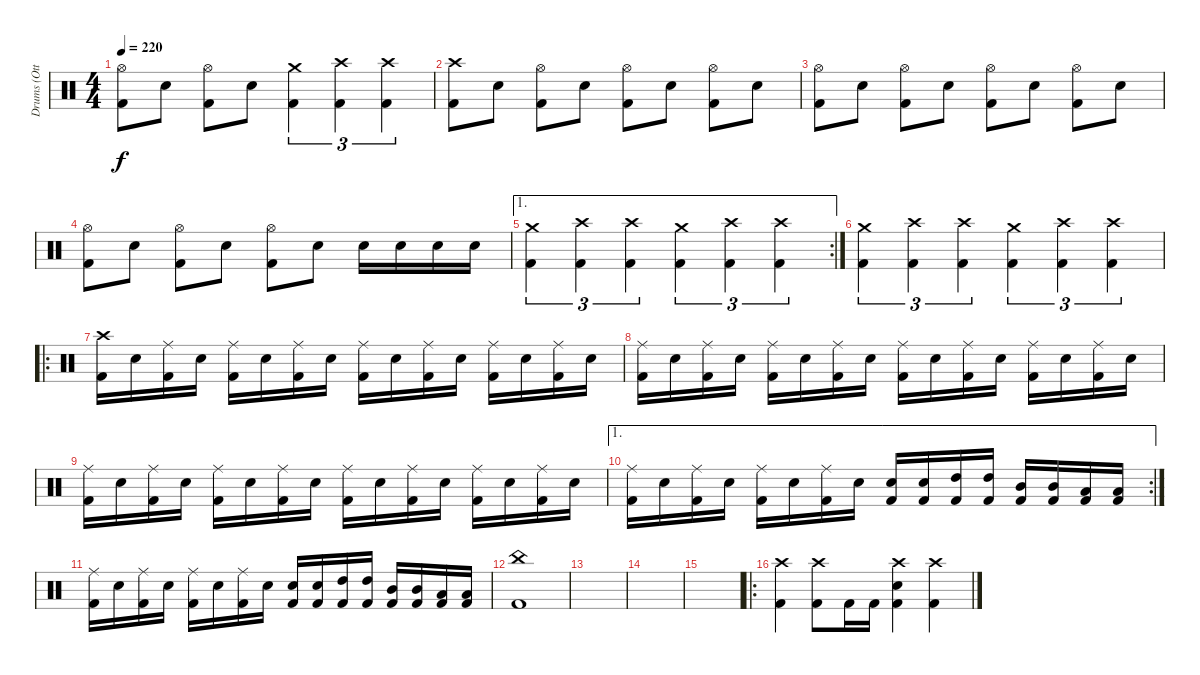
\track ("Drums (Otto)" "Drums (Ott") {instrument percussion}
\staff {score}
\articulation defaults
\ts (4 4)
\tempo 220
\clef neutral
\ks c
("Hi-Hat (open)" "Kick (hit) 2").8{dy f} "Electric Snare (hit)".8 ("Hi-Hat (open)" "Kick (hit) 2").8 "Electric Snare (hit)".8 ("Crash medium (hit)" "Kick (hit) 2").4{tu (3 2)} ("Crash high (hit)" "Kick (hit) 2").4{tu (3 2)} ("Crash high (hit)" "Kick (hit) 2").4{tu (3 2)} |
("Crash high (hit)" "Kick (hit) 2").8 "Electric Snare (hit)".8 ("Hi-Hat (open)" "Kick (hit) 2").8 "Electric Snare (hit)".8 ("Hi-Hat (open)" "Kick (hit) 2").8 "Electric Snare (hit)".8 ("Hi-Hat (open)" "Kick (hit) 2").8 "Electric Snare (hit)".8 |
("Hi-Hat (open)" "Kick (hit) 2").8 "Electric Snare (hit)".8 ("Hi-Hat (open)" "Kick (hit) 2").8 "Electric Snare (hit)".8 ("Hi-Hat (open)" "Kick (hit) 2").8 "Electric Snare (hit)".8 ("Hi-Hat (open)" "Kick (hit) 2").8 "Electric Snare (hit)".8 |
("Hi-Hat (open)" "Kick (hit) 2").8 "Electric Snare (hit)".8 ("Hi-Hat (open)" "Kick (hit) 2").8 "Electric Snare (hit)".8 ("Hi-Hat (open)" "Kick (hit) 2").8 "Electric Snare (hit)".8 "Electric Snare (hit)".16 "Electric Snare (hit)".16 "Electric Snare (hit)".16 "Electric Snare (hit)".16 |
\ae 1
\rc 2
("Crash medium (hit)" "Kick (hit) 2").4{tu (3 2)} ("Crash high (hit)" "Kick (hit) 2").4{tu (3 2)} ("Crash high (hit)" "Kick (hit) 2").4{tu (3 2)} ("Crash medium (hit)" "Kick (hit) 2").4{tu (3 2)} ("Crash high (hit)" "Kick (hit) 2").4{tu (3 2)} ("Crash high (hit)" "Kick (hit) 2").4{tu (3 2)} |
("Crash medium (hit)" "Kick (hit) 2").4{tu (3 2)} ("Crash high (hit)" "Kick (hit) 2").4{tu (3 2)} ("Crash high (hit)" "Kick (hit) 2").4{tu (3 2)} ("Crash medium (hit)" "Kick (hit) 2").4{tu (3 2)} ("Crash high (hit)" "Kick (hit) 2").4{tu (3 2)} ("Crash high (hit)" "Kick (hit) 2").4{tu (3 2)} |
\ro
("Crash high (hit)" "Kick (hit) 2").16 "Electric Snare (hit)".16 ("Ride (middle)" "Kick (hit) 2").16 "Electric Snare (hit)".16 ("Ride (middle)" "Kick (hit) 2").16 "Electric Snare (hit)".16 ("Ride (middle)" "Kick (hit) 2").16 "Electric Snare (hit)".16 ("Ride (middle)" "Kick (hit) 2").16 "Electric Snare (hit)".16 ("Ride (middle)" "Kick (hit) 2").16 "Electric Snare (hit)".16 ("Ride (middle)" "Kick (hit) 2").16 "Electric Snare (hit)".16 ("Ride (middle)" "Kick (hit) 2").16 "Electric Snare (hit)".16 |
("Ride (middle)" "Kick (hit) 2").16 "Electric Snare (hit)".16 ("Ride (middle)" "Kick (hit) 2").16 "Electric Snare (hit)".16 ("Ride (middle)" "Kick (hit) 2").16 "Electric Snare (hit)".16 ("Ride (middle)" "Kick (hit) 2").16 "Electric Snare (hit)".16 ("Ride (middle)" "Kick (hit) 2").16 "Electric Snare (hit)".16 ("Ride (middle)" "Kick (hit) 2").16 "Electric Snare (hit)".16 ("Ride (middle)" "Kick (hit) 2").16 "Electric Snare (hit)".16 ("Ride (middle)" "Kick (hit) 2").16 "Electric Snare (hit)".16 |
("Ride (middle)" "Kick (hit) 2").16 "Electric Snare (hit)".16 ("Ride (middle)" "Kick (hit) 2").16 "Electric Snare (hit)".16 ("Ride (middle)" "Kick (hit) 2").16 "Electric Snare (hit)".16 ("Ride (middle)" "Kick (hit) 2").16 "Electric Snare (hit)".16 ("Ride (middle)" "Kick (hit) 2").16 "Electric Snare (hit)".16 ("Ride (middle)" "Kick (hit) 2").16 "Electric Snare (hit)".16 ("Ride (middle)" "Kick (hit) 2").16 "Electric Snare (hit)".16 ("Ride (middle)" "Kick (hit) 2").16 "Electric Snare (hit)".16 |
\ae 1
\rc 2
("Ride (middle)" "Kick (hit) 2").16 "Electric Snare (hit)".16 ("Ride (middle)" "Kick (hit) 2").16 "Electric Snare (hit)".16 ("Ride (middle)" "Kick (hit) 2").16 "Electric Snare (hit)".16 ("Ride (middle)" "Kick (hit) 2").16 "Electric Snare (hit)".16 ("Electric Snare (hit)" "Kick (hit) 2").16 ("Electric Snare (hit)" "Kick (hit) 2").16 ("High Tom (hit)" "Kick (hit) 2").16 ("High Tom (hit)" "Kick (hit) 2").16 ("Mid Tom (hit)" "Kick (hit) 2").16 ("Mid Tom (hit)" "Kick (hit) 2").16 ("Low Tom (hit)" "Kick (hit) 2").16 ("Low Tom (hit)" "Kick (hit) 2").16 |
("Ride (middle)" "Kick (hit) 2").16 "Electric Snare (hit)".16 ("Ride (middle)" "Kick (hit) 2").16 "Electric Snare (hit)".16 ("Ride (middle)" "Kick (hit) 2").16 "Electric Snare (hit)".16 ("Ride (middle)" "Kick (hit) 2").16 "Electric Snare (hit)".16 ("Electric Snare (hit)" "Kick (hit) 2").16 ("Electric Snare (hit)" "Kick (hit) 2").16 ("High Tom (hit)" "Kick (hit) 2").16 ("High Tom (hit)" "Kick (hit) 2").16 ("Mid Tom (hit)" "Kick (hit) 2").16 ("Mid Tom (hit)" "Kick (hit) 2").16 ("Low Tom (hit)" "Kick (hit) 2").16 ("Low Tom (hit)" "Kick (hit) 2").16 |
("China (hit)" "Kick (hit) 2").1 |
|
|
|
\ro
("Crash high (hit)" "Kick (hit) 2").4 ("Crash high (hit)" "Kick (hit) 2").8 "Kick (hit) 2".16 "Kick (hit) 2".16 ("Crash high (hit)" "Electric Snare (hit)" "Kick (hit) 2").4 ("Crash high (hit)" "Kick (hit) 2").4
